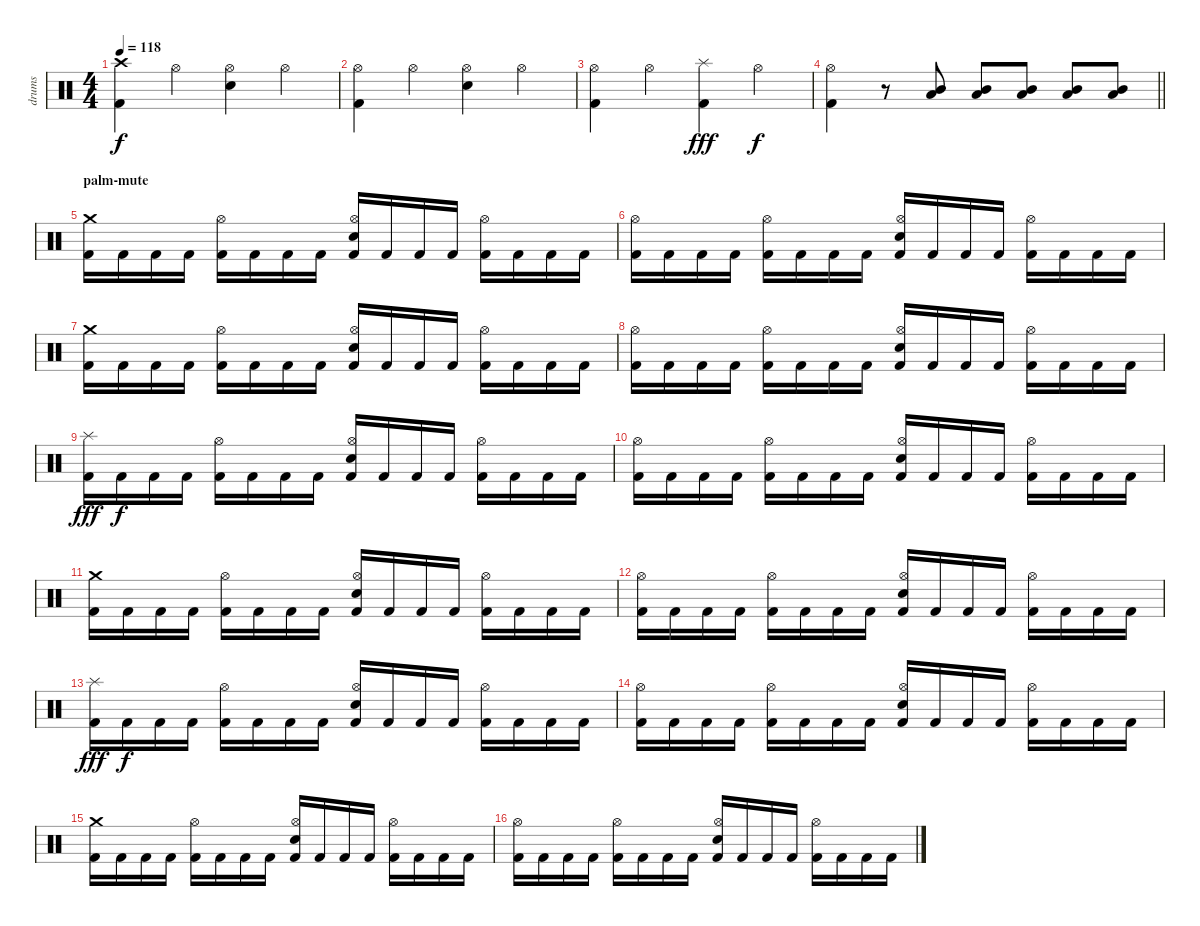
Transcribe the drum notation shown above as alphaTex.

\track ("drums" "drums") {instrument percussion}
\staff {score}
\articulation defaults
\ts (4 4)
\tempo 118
\clef neutral
\ks c
("Crash high (hit)" "Kick (hit) 2").4{dy f} "Hi-Hat (open)".4 ("Hi-Hat (open)" "Electric Snare (hit)").4 "Hi-Hat (open)".4 |
("Hi-Hat (open)" "Kick (hit) 2").4 "Hi-Hat (open)".4 ("Hi-Hat (open)" "Electric Snare (hit)").4 "Hi-Hat (open)".4 |
("Hi-Hat (open)" "Kick (hit) 2").4 "Hi-Hat (open)".4 ("Splash (hit)" "Kick (hit) 2").4{dy fff} "Hi-Hat (open)".4{dy f} |
\barLineRight lightlight
("Hi-Hat (open)" "Kick (hit) 2").4 r.8 ("Mid Tom (hit)" "Low Tom (hit)").8 ("Mid Tom (hit)" "Low Tom (hit)").8 ("Mid Tom (hit)" "Low Tom (hit)").8 ("Mid Tom (hit)" "Low Tom (hit)").8 ("Mid Tom (hit)" "Low Tom (hit)").8 |
\section ("" "palm-mute")
("Crash medium (hit)" "Kick (hit) 2").16 "Kick (hit) 2".16 "Kick (hit) 2".16 "Kick (hit) 2".16 ("Hi-Hat (open)" "Kick (hit) 2").16 "Kick (hit) 2".16 "Kick (hit) 2".16 "Kick (hit) 2".16 ("Hi-Hat (open)" "Electric Snare (hit)" "Kick (hit) 2").16 "Kick (hit) 2".16 "Kick (hit) 2".16 "Kick (hit) 2".16 ("Hi-Hat (open)" "Kick (hit) 2").16 "Kick (hit) 2".16 "Kick (hit) 2".16 "Kick (hit) 2".16 |
("Hi-Hat (open)" "Kick (hit) 2").16 "Kick (hit) 2".16 "Kick (hit) 2".16 "Kick (hit) 2".16 ("Hi-Hat (open)" "Kick (hit) 2").16 "Kick (hit) 2".16 "Kick (hit) 2".16 "Kick (hit) 2".16 ("Hi-Hat (open)" "Electric Snare (hit)" "Kick (hit) 2").16 "Kick (hit) 2".16 "Kick (hit) 2".16 "Kick (hit) 2".16 ("Hi-Hat (open)" "Kick (hit) 2").16 "Kick (hit) 2".16 "Kick (hit) 2".16 "Kick (hit) 2".16 |
("Crash medium (hit)" "Kick (hit) 2").16 "Kick (hit) 2".16 "Kick (hit) 2".16 "Kick (hit) 2".16 ("Hi-Hat (open)" "Kick (hit) 2").16 "Kick (hit) 2".16 "Kick (hit) 2".16 "Kick (hit) 2".16 ("Hi-Hat (open)" "Electric Snare (hit)" "Kick (hit) 2").16 "Kick (hit) 2".16 "Kick (hit) 2".16 "Kick (hit) 2".16 ("Hi-Hat (open)" "Kick (hit) 2").16 "Kick (hit) 2".16 "Kick (hit) 2".16 "Kick (hit) 2".16 |
("Hi-Hat (open)" "Kick (hit) 2").16 "Kick (hit) 2".16 "Kick (hit) 2".16 "Kick (hit) 2".16 ("Hi-Hat (open)" "Kick (hit) 2").16 "Kick (hit) 2".16 "Kick (hit) 2".16 "Kick (hit) 2".16 ("Hi-Hat (open)" "Electric Snare (hit)" "Kick (hit) 2").16 "Kick (hit) 2".16 "Kick (hit) 2".16 "Kick (hit) 2".16 ("Hi-Hat (open)" "Kick (hit) 2").16 "Kick (hit) 2".16 "Kick (hit) 2".16 "Kick (hit) 2".16 |
("Splash (hit)" "Kick (hit) 2").16{dy fff} "Kick (hit) 2".16{dy f} "Kick (hit) 2".16 "Kick (hit) 2".16 ("Hi-Hat (open)" "Kick (hit) 2").16 "Kick (hit) 2".16 "Kick (hit) 2".16 "Kick (hit) 2".16 ("Hi-Hat (open)" "Electric Snare (hit)" "Kick (hit) 2").16 "Kick (hit) 2".16 "Kick (hit) 2".16 "Kick (hit) 2".16 ("Hi-Hat (open)" "Kick (hit) 2").16 "Kick (hit) 2".16 "Kick (hit) 2".16 "Kick (hit) 2".16 |
("Hi-Hat (open)" "Kick (hit) 2").16 "Kick (hit) 2".16 "Kick (hit) 2".16 "Kick (hit) 2".16 ("Hi-Hat (open)" "Kick (hit) 2").16 "Kick (hit) 2".16 "Kick (hit) 2".16 "Kick (hit) 2".16 ("Hi-Hat (open)" "Electric Snare (hit)" "Kick (hit) 2").16 "Kick (hit) 2".16 "Kick (hit) 2".16 "Kick (hit) 2".16 ("Hi-Hat (open)" "Kick (hit) 2").16 "Kick (hit) 2".16 "Kick (hit) 2".16 "Kick (hit) 2".16 |
("Crash medium (hit)" "Kick (hit) 2").16 "Kick (hit) 2".16 "Kick (hit) 2".16 "Kick (hit) 2".16 ("Hi-Hat (open)" "Kick (hit) 2").16 "Kick (hit) 2".16 "Kick (hit) 2".16 "Kick (hit) 2".16 ("Hi-Hat (open)" "Electric Snare (hit)" "Kick (hit) 2").16 "Kick (hit) 2".16 "Kick (hit) 2".16 "Kick (hit) 2".16 ("Hi-Hat (open)" "Kick (hit) 2").16 "Kick (hit) 2".16 "Kick (hit) 2".16 "Kick (hit) 2".16 |
("Hi-Hat (open)" "Kick (hit) 2").16 "Kick (hit) 2".16 "Kick (hit) 2".16 "Kick (hit) 2".16 ("Hi-Hat (open)" "Kick (hit) 2").16 "Kick (hit) 2".16 "Kick (hit) 2".16 "Kick (hit) 2".16 ("Hi-Hat (open)" "Electric Snare (hit)" "Kick (hit) 2").16 "Kick (hit) 2".16 "Kick (hit) 2".16 "Kick (hit) 2".16 ("Hi-Hat (open)" "Kick (hit) 2").16 "Kick (hit) 2".16 "Kick (hit) 2".16 "Kick (hit) 2".16 |
("Splash (hit)" "Kick (hit) 2").16{dy fff} "Kick (hit) 2".16{dy f} "Kick (hit) 2".16 "Kick (hit) 2".16 ("Hi-Hat (open)" "Kick (hit) 2").16 "Kick (hit) 2".16 "Kick (hit) 2".16 "Kick (hit) 2".16 ("Hi-Hat (open)" "Electric Snare (hit)" "Kick (hit) 2").16 "Kick (hit) 2".16 "Kick (hit) 2".16 "Kick (hit) 2".16 ("Hi-Hat (open)" "Kick (hit) 2").16 "Kick (hit) 2".16 "Kick (hit) 2".16 "Kick (hit) 2".16 |
("Hi-Hat (open)" "Kick (hit) 2").16 "Kick (hit) 2".16 "Kick (hit) 2".16 "Kick (hit) 2".16 ("Hi-Hat (open)" "Kick (hit) 2").16 "Kick (hit) 2".16 "Kick (hit) 2".16 "Kick (hit) 2".16 ("Hi-Hat (open)" "Electric Snare (hit)" "Kick (hit) 2").16 "Kick (hit) 2".16 "Kick (hit) 2".16 "Kick (hit) 2".16 ("Hi-Hat (open)" "Kick (hit) 2").16 "Kick (hit) 2".16 "Kick (hit) 2".16 "Kick (hit) 2".16 |
("Crash medium (hit)" "Kick (hit) 2").16 "Kick (hit) 2".16 "Kick (hit) 2".16 "Kick (hit) 2".16 ("Hi-Hat (open)" "Kick (hit) 2").16 "Kick (hit) 2".16 "Kick (hit) 2".16 "Kick (hit) 2".16 ("Hi-Hat (open)" "Electric Snare (hit)" "Kick (hit) 2").16 "Kick (hit) 2".16 "Kick (hit) 2".16 "Kick (hit) 2".16 ("Hi-Hat (open)" "Kick (hit) 2").16 "Kick (hit) 2".16 "Kick (hit) 2".16 "Kick (hit) 2".16 |
("Hi-Hat (open)" "Kick (hit) 2").16 "Kick (hit) 2".16 "Kick (hit) 2".16 "Kick (hit) 2".16 ("Hi-Hat (open)" "Kick (hit) 2").16 "Kick (hit) 2".16 "Kick (hit) 2".16 "Kick (hit) 2".16 ("Hi-Hat (open)" "Electric Snare (hit)" "Kick (hit) 2").16 "Kick (hit) 2".16 "Kick (hit) 2".16 "Kick (hit) 2".16 ("Hi-Hat (open)" "Kick (hit) 2").16 "Kick (hit) 2".16 "Kick (hit) 2".16 "Kick (hit) 2".16
